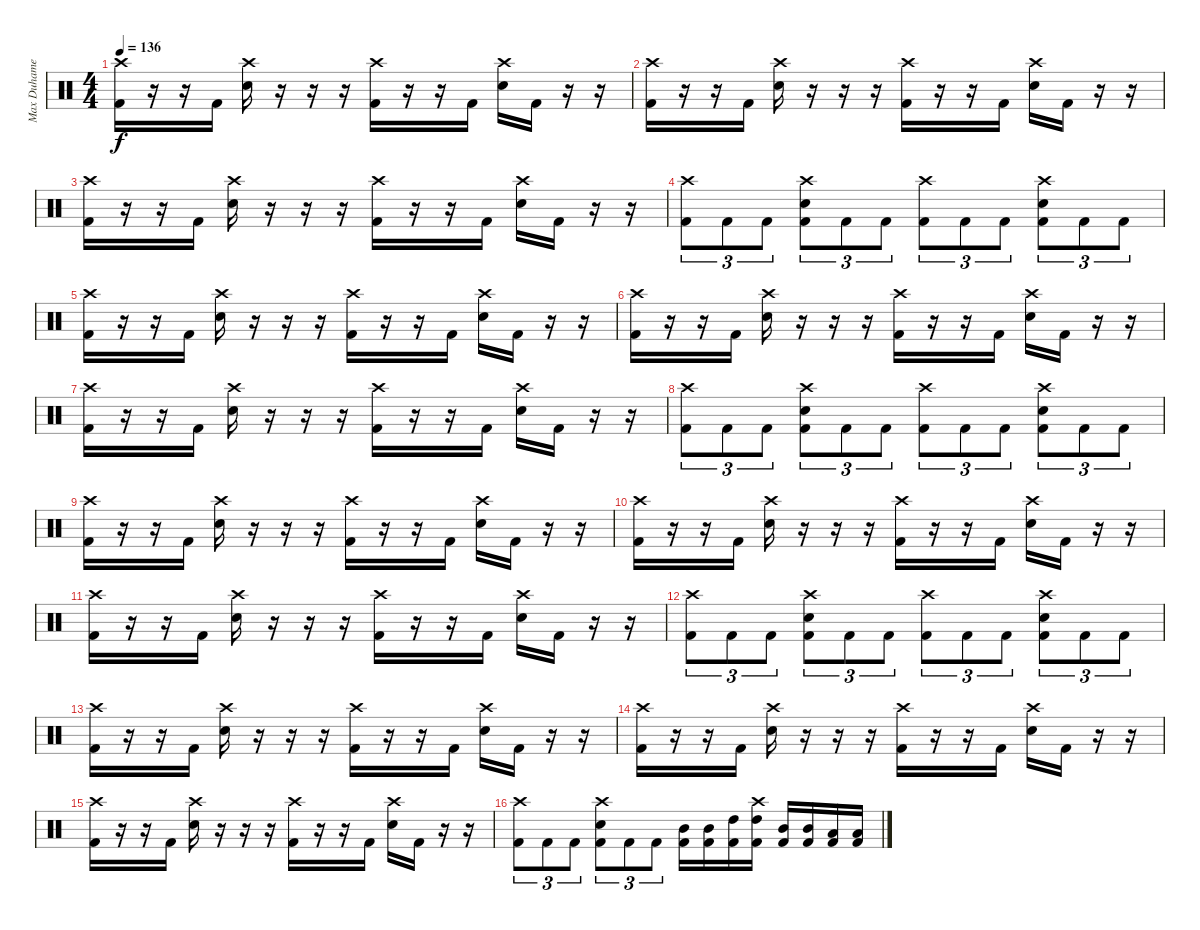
\track ("Max Duhamel (Drums)" "Max Duhame") {instrument percussion}
\staff {score}
\articulation defaults
\ts (4 4)
\tempo 136
\clef neutral
\ks c
("Crash high (hit)" "Kick (hit) 2").16{dy f} r.16 r.16 "Kick (hit) 2".16 ("Crash high (hit)" "Electric Snare (hit)").16 r.16 r.16 r.16 ("Crash high (hit)" "Kick (hit) 2").16 r.16 r.16 "Kick (hit) 2".16 ("Crash high (hit)" "Electric Snare (hit)").16 "Kick (hit) 2".16 r.16 r.16 |
("Crash high (hit)" "Kick (hit) 2").16 r.16 r.16 "Kick (hit) 2".16 ("Crash high (hit)" "Electric Snare (hit)").16 r.16 r.16 r.16 ("Crash high (hit)" "Kick (hit) 2").16 r.16 r.16 "Kick (hit) 2".16 ("Crash high (hit)" "Electric Snare (hit)").16 "Kick (hit) 2".16 r.16 r.16 |
("Crash high (hit)" "Kick (hit) 2").16 r.16 r.16 "Kick (hit) 2".16 ("Crash high (hit)" "Electric Snare (hit)").16 r.16 r.16 r.16 ("Crash high (hit)" "Kick (hit) 2").16 r.16 r.16 "Kick (hit) 2".16 ("Crash high (hit)" "Electric Snare (hit)").16 "Kick (hit) 2".16 r.16 r.16 |
("Crash high (hit)" "Kick (hit) 2").8{tu (3 2)} "Kick (hit) 2".8{tu (3 2)} "Kick (hit) 2".8{tu (3 2)} ("Crash high (hit)" "Electric Snare (hit)" "Kick (hit) 2").8{tu (3 2)} "Kick (hit) 2".8{tu (3 2)} "Kick (hit) 2".8{tu (3 2)} ("Crash high (hit)" "Kick (hit) 2").8{tu (3 2)} "Kick (hit) 2".8{tu (3 2)} "Kick (hit) 2".8{tu (3 2)} ("Crash high (hit)" "Electric Snare (hit)" "Kick (hit) 2").8{tu (3 2)} "Kick (hit) 2".8{tu (3 2)} "Kick (hit) 2".8{tu (3 2)} |
("Crash high (hit)" "Kick (hit) 2").16 r.16 r.16 "Kick (hit) 2".16 ("Crash high (hit)" "Electric Snare (hit)").16 r.16 r.16 r.16 ("Crash high (hit)" "Kick (hit) 2").16 r.16 r.16 "Kick (hit) 2".16 ("Crash high (hit)" "Electric Snare (hit)").16 "Kick (hit) 2".16 r.16 r.16 |
("Crash high (hit)" "Kick (hit) 2").16 r.16 r.16 "Kick (hit) 2".16 ("Crash high (hit)" "Electric Snare (hit)").16 r.16 r.16 r.16 ("Crash high (hit)" "Kick (hit) 2").16 r.16 r.16 "Kick (hit) 2".16 ("Crash high (hit)" "Electric Snare (hit)").16 "Kick (hit) 2".16 r.16 r.16 |
("Crash high (hit)" "Kick (hit) 2").16 r.16 r.16 "Kick (hit) 2".16 ("Crash high (hit)" "Electric Snare (hit)").16 r.16 r.16 r.16 ("Crash high (hit)" "Kick (hit) 2").16 r.16 r.16 "Kick (hit) 2".16 ("Crash high (hit)" "Electric Snare (hit)").16 "Kick (hit) 2".16 r.16 r.16 |
("Crash high (hit)" "Kick (hit) 2").8{tu (3 2)} "Kick (hit) 2".8{tu (3 2)} "Kick (hit) 2".8{tu (3 2)} ("Crash high (hit)" "Electric Snare (hit)" "Kick (hit) 2").8{tu (3 2)} "Kick (hit) 2".8{tu (3 2)} "Kick (hit) 2".8{tu (3 2)} ("Crash high (hit)" "Kick (hit) 2").8{tu (3 2)} "Kick (hit) 2".8{tu (3 2)} "Kick (hit) 2".8{tu (3 2)} ("Crash high (hit)" "Electric Snare (hit)" "Kick (hit) 2").8{tu (3 2)} "Kick (hit) 2".8{tu (3 2)} "Kick (hit) 2".8{tu (3 2)} |
("Crash high (hit)" "Kick (hit) 2").16 r.16 r.16 "Kick (hit) 2".16 ("Crash high (hit)" "Electric Snare (hit)").16 r.16 r.16 r.16 ("Crash high (hit)" "Kick (hit) 2").16 r.16 r.16 "Kick (hit) 2".16 ("Crash high (hit)" "Electric Snare (hit)").16 "Kick (hit) 2".16 r.16 r.16 |
("Crash high (hit)" "Kick (hit) 2").16 r.16 r.16 "Kick (hit) 2".16 ("Crash high (hit)" "Electric Snare (hit)").16 r.16 r.16 r.16 ("Crash high (hit)" "Kick (hit) 2").16 r.16 r.16 "Kick (hit) 2".16 ("Crash high (hit)" "Electric Snare (hit)").16 "Kick (hit) 2".16 r.16 r.16 |
("Crash high (hit)" "Kick (hit) 2").16 r.16 r.16 "Kick (hit) 2".16 ("Crash high (hit)" "Electric Snare (hit)").16 r.16 r.16 r.16 ("Crash high (hit)" "Kick (hit) 2").16 r.16 r.16 "Kick (hit) 2".16 ("Crash high (hit)" "Electric Snare (hit)").16 "Kick (hit) 2".16 r.16 r.16 |
("Crash high (hit)" "Kick (hit) 2").8{tu (3 2)} "Kick (hit) 2".8{tu (3 2)} "Kick (hit) 2".8{tu (3 2)} ("Crash high (hit)" "Electric Snare (hit)" "Kick (hit) 2").8{tu (3 2)} "Kick (hit) 2".8{tu (3 2)} "Kick (hit) 2".8{tu (3 2)} ("Crash high (hit)" "Kick (hit) 2").8{tu (3 2)} "Kick (hit) 2".8{tu (3 2)} "Kick (hit) 2".8{tu (3 2)} ("Crash high (hit)" "Electric Snare (hit)" "Kick (hit) 2").8{tu (3 2)} "Kick (hit) 2".8{tu (3 2)} "Kick (hit) 2".8{tu (3 2)} |
("Crash high (hit)" "Kick (hit) 2").16 r.16 r.16 "Kick (hit) 2".16 ("Crash high (hit)" "Electric Snare (hit)").16 r.16 r.16 r.16 ("Crash high (hit)" "Kick (hit) 2").16 r.16 r.16 "Kick (hit) 2".16 ("Crash high (hit)" "Electric Snare (hit)").16 "Kick (hit) 2".16 r.16 r.16 |
("Crash high (hit)" "Kick (hit) 2").16 r.16 r.16 "Kick (hit) 2".16 ("Crash high (hit)" "Electric Snare (hit)").16 r.16 r.16 r.16 ("Crash high (hit)" "Kick (hit) 2").16 r.16 r.16 "Kick (hit) 2".16 ("Crash high (hit)" "Electric Snare (hit)").16 "Kick (hit) 2".16 r.16 r.16 |
("Crash high (hit)" "Kick (hit) 2").16 r.16 r.16 "Kick (hit) 2".16 ("Crash high (hit)" "Electric Snare (hit)").16 r.16 r.16 r.16 ("Crash high (hit)" "Kick (hit) 2").16 r.16 r.16 "Kick (hit) 2".16 ("Crash high (hit)" "Electric Snare (hit)").16 "Kick (hit) 2".16 r.16 r.16 |
("Crash high (hit)" "Kick (hit) 2").8{tu (3 2)} "Kick (hit) 2".8{tu (3 2)} "Kick (hit) 2".8{tu (3 2)} ("Crash high (hit)" "Electric Snare (hit)" "Kick (hit) 2").8{tu (3 2)} "Kick (hit) 2".8{tu (3 2)} "Kick (hit) 2".8{tu (3 2)} ("Mid Tom (hit)" "Kick (hit) 2").16 ("Mid Tom (hit)" "Kick (hit) 2").16 ("High Tom (hit)" "Kick (hit) 2").16 ("Crash high (hit)" "High Tom (hit)" "Kick (hit) 2").16 ("Mid Tom (hit)" "Kick (hit) 2").16 ("Mid Tom (hit)" "Kick (hit) 2").16 ("Low Tom (hit)" "Kick (hit) 2").16 ("Low Tom (hit)" "Kick (hit) 2").16
